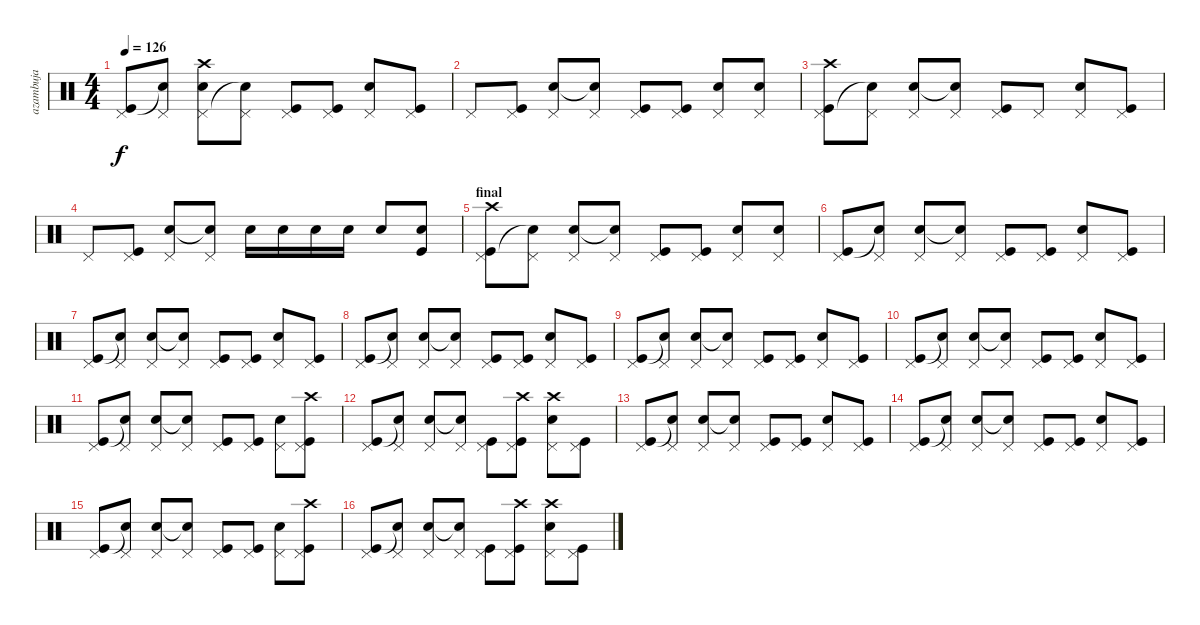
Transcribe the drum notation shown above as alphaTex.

\track ("azambuja" "azambuja") {instrument percussion}
\staff {score}
\articulation defaults
\ts (4 4)
\tempo 126
\clef neutral
\ks c
("Pedal Hi-Hat (hit)" "Kick (hit)").8{dy f} ("Pedal Hi-Hat (hit)" "Snare (hit)"{t}).8 ("Crash high (hit)" "Pedal Hi-Hat (hit)" "Snare (hit) 2").8 ("Pedal Hi-Hat (hit)" "Snare (hit) 2"{t}).8 ("Pedal Hi-Hat (hit)" "Kick (hit)").8 ("Pedal Hi-Hat (hit)" "Kick (hit)").8 ("Pedal Hi-Hat (hit)" "Snare (hit) 2").8 ("Pedal Hi-Hat (hit)" "Kick (hit)").8 |
"Pedal Hi-Hat (hit)".8 ("Pedal Hi-Hat (hit)" "Kick (hit)").8 ("Pedal Hi-Hat (hit)" "Snare (hit) 2").8 ("Pedal Hi-Hat (hit)" "Snare (hit) 2"{t}).8 ("Pedal Hi-Hat (hit)" "Kick (hit)").8 ("Pedal Hi-Hat (hit)" "Kick (hit)").8 ("Pedal Hi-Hat (hit)" "Snare (hit) 2").8 ("Pedal Hi-Hat (hit)" "Snare (hit) 2").8 |
("Crash high (hit)" "Pedal Hi-Hat (hit)" "Kick (hit)").8 ("Pedal Hi-Hat (hit)" "Snare (hit)"{t}).8 ("Pedal Hi-Hat (hit)" "Snare (hit) 2").8 ("Pedal Hi-Hat (hit)" "Snare (hit) 2"{t}).8 ("Pedal Hi-Hat (hit)" "Kick (hit)").8 "Pedal Hi-Hat (hit)".8 ("Pedal Hi-Hat (hit)" "Snare (hit) 2").8 ("Pedal Hi-Hat (hit)" "Kick (hit)").8 |
"Pedal Hi-Hat (hit)".8 ("Pedal Hi-Hat (hit)" "Kick (hit)").8 ("Pedal Hi-Hat (hit)" "Snare (hit) 2").8 ("Pedal Hi-Hat (hit)" "Snare (hit) 2"{t}).8 "Snare (hit) 2".16 "Snare (hit) 2".16 "Snare (hit) 2".16 "Snare (hit) 2".16 "Snare (hit) 2".8 ("Snare (hit) 2" "Kick (hit)").8 |
\section ("" "final")
("Crash high (hit)" "Pedal Hi-Hat (hit)" "Kick (hit)").8 ("Pedal Hi-Hat (hit)" "Snare (hit)"{t}).8 ("Pedal Hi-Hat (hit)" "Snare (hit) 2").8 ("Pedal Hi-Hat (hit)" "Snare (hit) 2"{t}).8 ("Pedal Hi-Hat (hit)" "Kick (hit)").8 ("Pedal Hi-Hat (hit)" "Kick (hit)").8 ("Pedal Hi-Hat (hit)" "Snare (hit) 2").8 ("Pedal Hi-Hat (hit)" "Snare (hit) 2").8 |
("Pedal Hi-Hat (hit)" "Kick (hit)").8 ("Pedal Hi-Hat (hit)" "Snare (hit)"{t}).8 ("Pedal Hi-Hat (hit)" "Snare (hit) 2").8 ("Pedal Hi-Hat (hit)" "Snare (hit) 2"{t}).8 ("Pedal Hi-Hat (hit)" "Kick (hit)").8 ("Pedal Hi-Hat (hit)" "Kick (hit)").8 ("Pedal Hi-Hat (hit)" "Snare (hit) 2").8 ("Pedal Hi-Hat (hit)" "Kick (hit)").8 |
("Pedal Hi-Hat (hit)" "Kick (hit)").8 ("Pedal Hi-Hat (hit)" "Snare (hit)"{t}).8 ("Pedal Hi-Hat (hit)" "Snare (hit) 2").8 ("Pedal Hi-Hat (hit)" "Snare (hit) 2"{t}).8 ("Pedal Hi-Hat (hit)" "Kick (hit)").8 ("Pedal Hi-Hat (hit)" "Kick (hit)").8 ("Pedal Hi-Hat (hit)" "Snare (hit) 2").8 ("Pedal Hi-Hat (hit)" "Kick (hit)").8 |
("Pedal Hi-Hat (hit)" "Kick (hit)").8 ("Pedal Hi-Hat (hit)" "Snare (hit)"{t}).8 ("Pedal Hi-Hat (hit)" "Snare (hit) 2").8 ("Pedal Hi-Hat (hit)" "Snare (hit) 2"{t}).8 ("Pedal Hi-Hat (hit)" "Kick (hit)").8 ("Pedal Hi-Hat (hit)" "Kick (hit)").8 ("Pedal Hi-Hat (hit)" "Snare (hit) 2").8 ("Pedal Hi-Hat (hit)" "Kick (hit)").8 |
("Pedal Hi-Hat (hit)" "Kick (hit)").8 ("Pedal Hi-Hat (hit)" "Snare (hit)"{t}).8 ("Pedal Hi-Hat (hit)" "Snare (hit) 2").8 ("Pedal Hi-Hat (hit)" "Snare (hit) 2"{t}).8 ("Pedal Hi-Hat (hit)" "Kick (hit)").8 ("Pedal Hi-Hat (hit)" "Kick (hit)").8 ("Pedal Hi-Hat (hit)" "Snare (hit) 2").8 ("Pedal Hi-Hat (hit)" "Kick (hit)").8 |
("Pedal Hi-Hat (hit)" "Kick (hit)").8 ("Pedal Hi-Hat (hit)" "Snare (hit)"{t}).8 ("Pedal Hi-Hat (hit)" "Snare (hit) 2").8 ("Pedal Hi-Hat (hit)" "Snare (hit) 2"{t}).8 ("Pedal Hi-Hat (hit)" "Kick (hit)").8 ("Pedal Hi-Hat (hit)" "Kick (hit)").8 ("Pedal Hi-Hat (hit)" "Snare (hit) 2").8 ("Pedal Hi-Hat (hit)" "Kick (hit)").8 |
("Pedal Hi-Hat (hit)" "Kick (hit)").8 ("Pedal Hi-Hat (hit)" "Snare (hit)"{t}).8 ("Pedal Hi-Hat (hit)" "Snare (hit) 2").8 ("Pedal Hi-Hat (hit)" "Snare (hit) 2"{t}).8 ("Pedal Hi-Hat (hit)" "Kick (hit)").8 ("Pedal Hi-Hat (hit)" "Kick (hit)").8 ("Pedal Hi-Hat (hit)" "Snare (hit) 2").8 ("Crash high (hit)" "Pedal Hi-Hat (hit)" "Kick (hit)").8 |
("Pedal Hi-Hat (hit)" "Kick (hit)").8 ("Pedal Hi-Hat (hit)" "Snare (hit)"{t}).8 ("Pedal Hi-Hat (hit)" "Snare (hit) 2").8 ("Pedal Hi-Hat (hit)" "Snare (hit) 2"{t}).8 ("Pedal Hi-Hat (hit)" "Kick (hit)").8 ("Crash high (hit)" "Pedal Hi-Hat (hit)" "Kick (hit)").8 ("Crash high (hit)" "Pedal Hi-Hat (hit)" "Snare (hit) 2").8 ("Pedal Hi-Hat (hit)" "Kick (hit)").8 |
\section ("" "")
("Pedal Hi-Hat (hit)" "Kick (hit)").8 ("Pedal Hi-Hat (hit)" "Snare (hit)"{t}).8 ("Pedal Hi-Hat (hit)" "Snare (hit) 2").8 ("Pedal Hi-Hat (hit)" "Snare (hit) 2"{t}).8 ("Pedal Hi-Hat (hit)" "Kick (hit)").8 ("Pedal Hi-Hat (hit)" "Kick (hit)").8 ("Pedal Hi-Hat (hit)" "Snare (hit) 2").8 ("Pedal Hi-Hat (hit)" "Kick (hit)").8 |
("Pedal Hi-Hat (hit)" "Kick (hit)").8 ("Pedal Hi-Hat (hit)" "Snare (hit)"{t}).8 ("Pedal Hi-Hat (hit)" "Snare (hit) 2").8 ("Pedal Hi-Hat (hit)" "Snare (hit) 2"{t}).8 ("Pedal Hi-Hat (hit)" "Kick (hit)").8 ("Pedal Hi-Hat (hit)" "Kick (hit)").8 ("Pedal Hi-Hat (hit)" "Snare (hit) 2").8 ("Pedal Hi-Hat (hit)" "Kick (hit)").8 |
("Pedal Hi-Hat (hit)" "Kick (hit)").8 ("Pedal Hi-Hat (hit)" "Snare (hit)"{t}).8 ("Pedal Hi-Hat (hit)" "Snare (hit) 2").8 ("Pedal Hi-Hat (hit)" "Snare (hit) 2"{t}).8 ("Pedal Hi-Hat (hit)" "Kick (hit)").8 ("Pedal Hi-Hat (hit)" "Kick (hit)").8 ("Pedal Hi-Hat (hit)" "Snare (hit) 2").8 ("Crash high (hit)" "Pedal Hi-Hat (hit)" "Kick (hit)").8 |
("Pedal Hi-Hat (hit)" "Kick (hit)").8 ("Pedal Hi-Hat (hit)" "Snare (hit)"{t}).8 ("Pedal Hi-Hat (hit)" "Snare (hit) 2").8 ("Pedal Hi-Hat (hit)" "Snare (hit) 2"{t}).8 ("Pedal Hi-Hat (hit)" "Kick (hit)").8 ("Crash high (hit)" "Pedal Hi-Hat (hit)" "Kick (hit)").8 ("Crash high (hit)" "Pedal Hi-Hat (hit)" "Snare (hit) 2").8 ("Pedal Hi-Hat (hit)" "Kick (hit)").8
